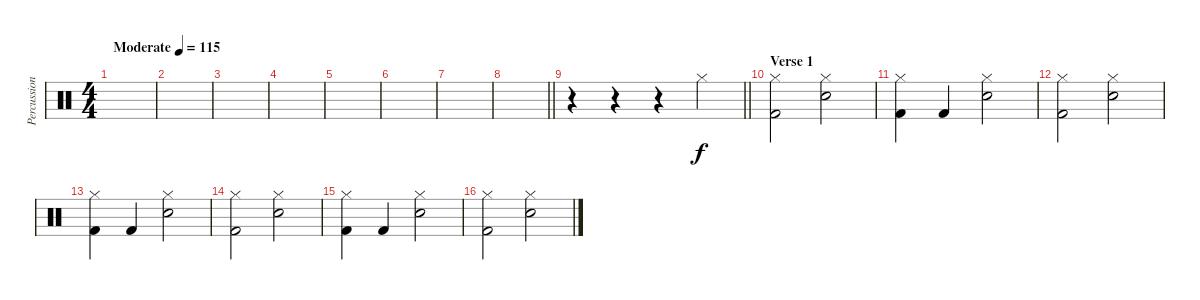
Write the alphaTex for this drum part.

\track ("Percussion" "Percussion") {instrument percussion}
\staff {score}
\articulation defaults
\ts (4 4)
\tempo (115 "Moderate")
\clef neutral
\ks c
|
|
|
|
|
|
|
\barLineRight lightlight
|
\barLineRight lightlight
r.4 r.4 r.4 "Hi-Hat (closed)".4 |
\section ("" "Verse 1")
("Hi-Hat (closed)" "Kick (hit) 2").2 ("Hi-Hat (closed)" "Snare (hit) 2").2 |
("Hi-Hat (closed)" "Kick (hit) 2").4 "Kick (hit) 2".4 ("Hi-Hat (closed)" "Snare (hit) 2").2 |
("Hi-Hat (closed)" "Kick (hit) 2").2 ("Hi-Hat (closed)" "Snare (hit) 2").2 |
("Hi-Hat (closed)" "Kick (hit) 2").4 "Kick (hit) 2".4 ("Hi-Hat (closed)" "Snare (hit) 2").2 |
("Hi-Hat (closed)" "Kick (hit) 2").2 ("Hi-Hat (closed)" "Snare (hit) 2").2 |
("Hi-Hat (closed)" "Kick (hit) 2").4 "Kick (hit) 2".4 ("Hi-Hat (closed)" "Snare (hit) 2").2 |
("Hi-Hat (closed)" "Kick (hit) 2").2 ("Hi-Hat (closed)" "Snare (hit) 2").2
